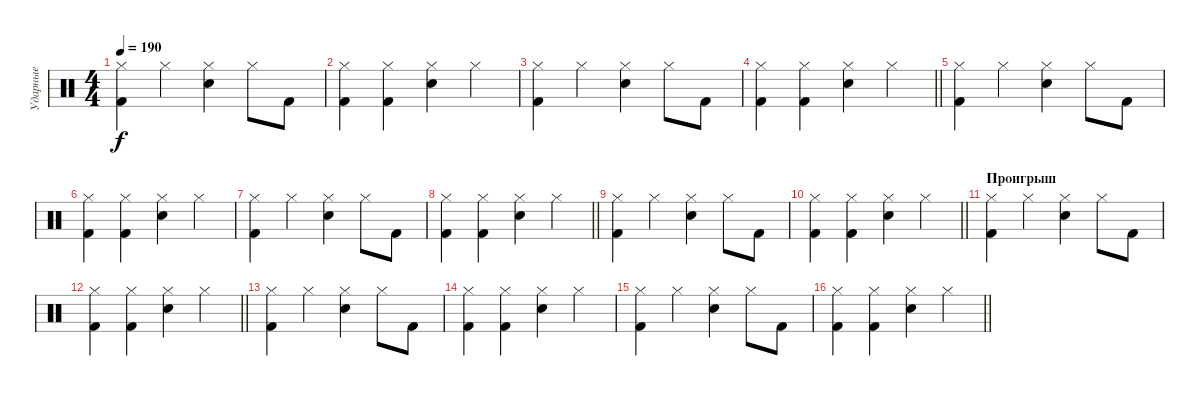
\track ("Ударные" "Ударные") {instrument percussion}
\staff {score}
\articulation defaults
\ts (4 4)
\tempo 190
\clef neutral
\ks c
("Kick (hit) 2" "Hi-Hat (closed)").4{dy f} "Hi-Hat (closed)".4 ("Hand Clap (hit)" "Hi-Hat (closed)").4 "Hi-Hat (closed)".8 "Kick (hit) 2".8 |
("Kick (hit) 2" "Hi-Hat (closed)").4 ("Kick (hit) 2" "Hi-Hat (closed)").4 ("Hand Clap (hit)" "Hi-Hat (closed)").4 "Hi-Hat (closed)".4 |
("Kick (hit) 2" "Hi-Hat (closed)").4 "Hi-Hat (closed)".4 ("Hand Clap (hit)" "Hi-Hat (closed)").4 "Hi-Hat (closed)".8 "Kick (hit) 2".8 |
\barLineRight lightlight
("Kick (hit) 2" "Hi-Hat (closed)").4 ("Kick (hit) 2" "Hi-Hat (closed)").4 ("Hand Clap (hit)" "Hi-Hat (closed)").4 "Hi-Hat (closed)".4 |
("Kick (hit) 2" "Hi-Hat (closed)").4 "Hi-Hat (closed)".4 ("Hand Clap (hit)" "Hi-Hat (closed)").4 "Hi-Hat (closed)".8 "Kick (hit) 2".8 |
("Kick (hit) 2" "Hi-Hat (closed)").4 ("Kick (hit) 2" "Hi-Hat (closed)").4 ("Hand Clap (hit)" "Hi-Hat (closed)").4 "Hi-Hat (closed)".4 |
("Kick (hit) 2" "Hi-Hat (closed)").4 "Hi-Hat (closed)".4 ("Hand Clap (hit)" "Hi-Hat (closed)").4 "Hi-Hat (closed)".8 "Kick (hit) 2".8 |
\barLineRight lightlight
("Kick (hit) 2" "Hi-Hat (closed)").4 ("Kick (hit) 2" "Hi-Hat (closed)").4 ("Hand Clap (hit)" "Hi-Hat (closed)").4 "Hi-Hat (closed)".4 |
("Kick (hit) 2" "Hi-Hat (closed)").4 "Hi-Hat (closed)".4 ("Hand Clap (hit)" "Hi-Hat (closed)").4 "Hi-Hat (closed)".8 "Kick (hit) 2".8 |
\barLineRight lightlight
("Kick (hit) 2" "Hi-Hat (closed)").4 ("Kick (hit) 2" "Hi-Hat (closed)").4 ("Hand Clap (hit)" "Hi-Hat (closed)").4 "Hi-Hat (closed)".4 |
\section ("" "Проигрыш")
("Kick (hit) 2" "Hi-Hat (closed)").4 "Hi-Hat (closed)".4 ("Hand Clap (hit)" "Hi-Hat (closed)").4 "Hi-Hat (closed)".8 "Kick (hit) 2".8 |
\barLineRight lightlight
("Kick (hit) 2" "Hi-Hat (closed)").4 ("Kick (hit) 2" "Hi-Hat (closed)").4 ("Hand Clap (hit)" "Hi-Hat (closed)").4 "Hi-Hat (closed)".4 |
("Kick (hit) 2" "Hi-Hat (closed)").4 "Hi-Hat (closed)".4 ("Hand Clap (hit)" "Hi-Hat (closed)").4 "Hi-Hat (closed)".8 "Kick (hit) 2".8 |
("Kick (hit) 2" "Hi-Hat (closed)").4 ("Kick (hit) 2" "Hi-Hat (closed)").4 ("Hand Clap (hit)" "Hi-Hat (closed)").4 "Hi-Hat (closed)".4 |
("Kick (hit) 2" "Hi-Hat (closed)").4 "Hi-Hat (closed)".4 ("Hand Clap (hit)" "Hi-Hat (closed)").4 "Hi-Hat (closed)".8 "Kick (hit) 2".8 |
\barLineRight lightlight
("Kick (hit) 2" "Hi-Hat (closed)").4 ("Kick (hit) 2" "Hi-Hat (closed)").4 ("Hand Clap (hit)" "Hi-Hat (closed)").4 "Hi-Hat (closed)".4
